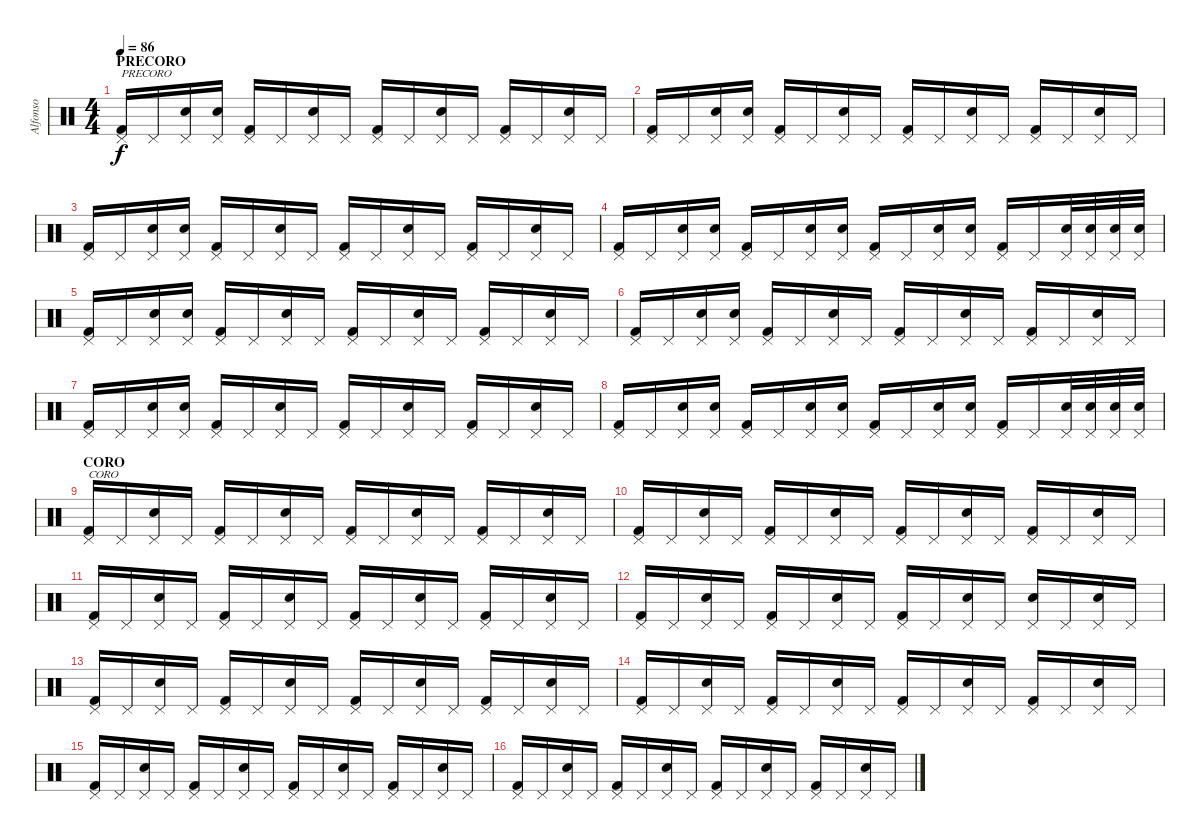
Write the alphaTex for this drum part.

\track ("Alfonso" "Alfonso") {instrument percussion}
\staff {score}
\articulation defaults
\ts (4 4)
\section ("" "PRECORO")
\tempo 86
\clef neutral
\ks c
("Pedal Hi-Hat (hit)" "Kick (hit) 2").16{txt "PRECORO" dy f} "Pedal Hi-Hat (hit)".16 ("Pedal Hi-Hat (hit)" "Electric Snare (hit)").16 ("Pedal Hi-Hat (hit)" "Electric Snare (hit)").16 ("Pedal Hi-Hat (hit)" "Kick (hit) 2").16 "Pedal Hi-Hat (hit)".16 ("Pedal Hi-Hat (hit)" "Electric Snare (hit)").16 "Pedal Hi-Hat (hit)".16 ("Pedal Hi-Hat (hit)" "Kick (hit) 2").16 "Pedal Hi-Hat (hit)".16 ("Pedal Hi-Hat (hit)" "Electric Snare (hit)").16 "Pedal Hi-Hat (hit)".16 ("Pedal Hi-Hat (hit)" "Kick (hit) 2").16 "Pedal Hi-Hat (hit)".16 ("Pedal Hi-Hat (hit)" "Electric Snare (hit)").16 "Pedal Hi-Hat (hit)".16 |
("Pedal Hi-Hat (hit)" "Kick (hit) 2").16 "Pedal Hi-Hat (hit)".16 ("Pedal Hi-Hat (hit)" "Electric Snare (hit)").16 ("Pedal Hi-Hat (hit)" "Electric Snare (hit)").16 ("Pedal Hi-Hat (hit)" "Kick (hit) 2").16 "Pedal Hi-Hat (hit)".16 ("Pedal Hi-Hat (hit)" "Electric Snare (hit)").16 "Pedal Hi-Hat (hit)".16 ("Pedal Hi-Hat (hit)" "Kick (hit) 2").16 "Pedal Hi-Hat (hit)".16 ("Pedal Hi-Hat (hit)" "Electric Snare (hit)").16 "Pedal Hi-Hat (hit)".16 ("Pedal Hi-Hat (hit)" "Kick (hit) 2").16 "Pedal Hi-Hat (hit)".16 ("Pedal Hi-Hat (hit)" "Electric Snare (hit)").16 "Pedal Hi-Hat (hit)".16 |
("Pedal Hi-Hat (hit)" "Kick (hit) 2").16 "Pedal Hi-Hat (hit)".16 ("Pedal Hi-Hat (hit)" "Electric Snare (hit)").16 ("Pedal Hi-Hat (hit)" "Electric Snare (hit)").16 ("Pedal Hi-Hat (hit)" "Kick (hit) 2").16 "Pedal Hi-Hat (hit)".16 ("Pedal Hi-Hat (hit)" "Electric Snare (hit)").16 "Pedal Hi-Hat (hit)".16 ("Pedal Hi-Hat (hit)" "Kick (hit) 2").16 "Pedal Hi-Hat (hit)".16 ("Pedal Hi-Hat (hit)" "Electric Snare (hit)").16 "Pedal Hi-Hat (hit)".16 ("Pedal Hi-Hat (hit)" "Kick (hit) 2").16 "Pedal Hi-Hat (hit)".16 ("Pedal Hi-Hat (hit)" "Electric Snare (hit)").16 "Pedal Hi-Hat (hit)".16 |
("Pedal Hi-Hat (hit)" "Kick (hit) 2").16 "Pedal Hi-Hat (hit)".16 ("Pedal Hi-Hat (hit)" "Electric Snare (hit)").16 ("Pedal Hi-Hat (hit)" "Electric Snare (hit)").16 ("Pedal Hi-Hat (hit)" "Kick (hit) 2").16 "Pedal Hi-Hat (hit)".16 ("Pedal Hi-Hat (hit)" "Electric Snare (hit)").16 ("Pedal Hi-Hat (hit)" "Electric Snare (hit)").16 ("Pedal Hi-Hat (hit)" "Kick (hit) 2").16 "Pedal Hi-Hat (hit)".16 ("Pedal Hi-Hat (hit)" "Electric Snare (hit)").16 ("Pedal Hi-Hat (hit)" "Electric Snare (hit)").16 ("Pedal Hi-Hat (hit)" "Kick (hit) 2").16 "Pedal Hi-Hat (hit)".16 ("Pedal Hi-Hat (hit)" "Electric Snare (hit)").32 ("Pedal Hi-Hat (hit)" "Electric Snare (hit)").32 ("Pedal Hi-Hat (hit)" "Electric Snare (hit)").32 ("Pedal Hi-Hat (hit)" "Electric Snare (hit)").32 |
("Pedal Hi-Hat (hit)" "Kick (hit) 2").16 "Pedal Hi-Hat (hit)".16 ("Pedal Hi-Hat (hit)" "Electric Snare (hit)").16 ("Pedal Hi-Hat (hit)" "Electric Snare (hit)").16 ("Pedal Hi-Hat (hit)" "Kick (hit) 2").16 "Pedal Hi-Hat (hit)".16 ("Pedal Hi-Hat (hit)" "Electric Snare (hit)").16 "Pedal Hi-Hat (hit)".16 ("Pedal Hi-Hat (hit)" "Kick (hit) 2").16 "Pedal Hi-Hat (hit)".16 ("Pedal Hi-Hat (hit)" "Electric Snare (hit)").16 "Pedal Hi-Hat (hit)".16 ("Pedal Hi-Hat (hit)" "Kick (hit) 2").16 "Pedal Hi-Hat (hit)".16 ("Pedal Hi-Hat (hit)" "Electric Snare (hit)").16 "Pedal Hi-Hat (hit)".16 |
("Pedal Hi-Hat (hit)" "Kick (hit) 2").16 "Pedal Hi-Hat (hit)".16 ("Pedal Hi-Hat (hit)" "Electric Snare (hit)").16 ("Pedal Hi-Hat (hit)" "Electric Snare (hit)").16 ("Pedal Hi-Hat (hit)" "Kick (hit) 2").16 "Pedal Hi-Hat (hit)".16 ("Pedal Hi-Hat (hit)" "Electric Snare (hit)").16 "Pedal Hi-Hat (hit)".16 ("Pedal Hi-Hat (hit)" "Kick (hit) 2").16 "Pedal Hi-Hat (hit)".16 ("Pedal Hi-Hat (hit)" "Electric Snare (hit)").16 "Pedal Hi-Hat (hit)".16 ("Pedal Hi-Hat (hit)" "Kick (hit) 2").16 "Pedal Hi-Hat (hit)".16 ("Pedal Hi-Hat (hit)" "Electric Snare (hit)").16 "Pedal Hi-Hat (hit)".16 |
("Pedal Hi-Hat (hit)" "Kick (hit) 2").16 "Pedal Hi-Hat (hit)".16 ("Pedal Hi-Hat (hit)" "Electric Snare (hit)").16 ("Pedal Hi-Hat (hit)" "Electric Snare (hit)").16 ("Pedal Hi-Hat (hit)" "Kick (hit) 2").16 "Pedal Hi-Hat (hit)".16 ("Pedal Hi-Hat (hit)" "Electric Snare (hit)").16 "Pedal Hi-Hat (hit)".16 ("Pedal Hi-Hat (hit)" "Kick (hit) 2").16 "Pedal Hi-Hat (hit)".16 ("Pedal Hi-Hat (hit)" "Electric Snare (hit)").16 "Pedal Hi-Hat (hit)".16 ("Pedal Hi-Hat (hit)" "Kick (hit) 2").16 "Pedal Hi-Hat (hit)".16 ("Pedal Hi-Hat (hit)" "Electric Snare (hit)").16 "Pedal Hi-Hat (hit)".16 |
("Pedal Hi-Hat (hit)" "Kick (hit) 2").16 "Pedal Hi-Hat (hit)".16 ("Pedal Hi-Hat (hit)" "Electric Snare (hit)").16 ("Pedal Hi-Hat (hit)" "Electric Snare (hit)").16 ("Pedal Hi-Hat (hit)" "Kick (hit) 2").16 "Pedal Hi-Hat (hit)".16 ("Pedal Hi-Hat (hit)" "Electric Snare (hit)").16 ("Pedal Hi-Hat (hit)" "Electric Snare (hit)").16 ("Pedal Hi-Hat (hit)" "Kick (hit) 2").16 "Pedal Hi-Hat (hit)".16 ("Pedal Hi-Hat (hit)" "Electric Snare (hit)").16 ("Pedal Hi-Hat (hit)" "Electric Snare (hit)").16 ("Pedal Hi-Hat (hit)" "Kick (hit) 2").16 "Pedal Hi-Hat (hit)".16 ("Pedal Hi-Hat (hit)" "Electric Snare (hit)").32 ("Pedal Hi-Hat (hit)" "Electric Snare (hit)").32 ("Pedal Hi-Hat (hit)" "Electric Snare (hit)").32 ("Pedal Hi-Hat (hit)" "Electric Snare (hit)").32 |
\section ("" "CORO")
("Pedal Hi-Hat (hit)" "Kick (hit) 2").16{txt "CORO"} "Pedal Hi-Hat (hit)".16 ("Pedal Hi-Hat (hit)" "Electric Snare (hit)").16 "Pedal Hi-Hat (hit)".16 ("Pedal Hi-Hat (hit)" "Kick (hit) 2").16 "Pedal Hi-Hat (hit)".16 ("Pedal Hi-Hat (hit)" "Electric Snare (hit)").16 "Pedal Hi-Hat (hit)".16 ("Pedal Hi-Hat (hit)" "Kick (hit) 2").16 "Pedal Hi-Hat (hit)".16 ("Pedal Hi-Hat (hit)" "Electric Snare (hit)").16 "Pedal Hi-Hat (hit)".16 ("Pedal Hi-Hat (hit)" "Kick (hit) 2").16 "Pedal Hi-Hat (hit)".16 ("Pedal Hi-Hat (hit)" "Electric Snare (hit)").16 "Pedal Hi-Hat (hit)".16 |
("Pedal Hi-Hat (hit)" "Kick (hit) 2").16 "Pedal Hi-Hat (hit)".16 ("Pedal Hi-Hat (hit)" "Electric Snare (hit)").16 "Pedal Hi-Hat (hit)".16 ("Pedal Hi-Hat (hit)" "Kick (hit) 2").16 "Pedal Hi-Hat (hit)".16 ("Pedal Hi-Hat (hit)" "Electric Snare (hit)").16 "Pedal Hi-Hat (hit)".16 ("Pedal Hi-Hat (hit)" "Kick (hit) 2").16 "Pedal Hi-Hat (hit)".16 ("Pedal Hi-Hat (hit)" "Electric Snare (hit)").16 "Pedal Hi-Hat (hit)".16 ("Pedal Hi-Hat (hit)" "Kick (hit) 2").16 "Pedal Hi-Hat (hit)".16 ("Pedal Hi-Hat (hit)" "Electric Snare (hit)").16 "Pedal Hi-Hat (hit)".16 |
("Pedal Hi-Hat (hit)" "Kick (hit) 2").16 "Pedal Hi-Hat (hit)".16 ("Pedal Hi-Hat (hit)" "Electric Snare (hit)").16 "Pedal Hi-Hat (hit)".16 ("Pedal Hi-Hat (hit)" "Kick (hit) 2").16 "Pedal Hi-Hat (hit)".16 ("Pedal Hi-Hat (hit)" "Electric Snare (hit)").16 "Pedal Hi-Hat (hit)".16 ("Pedal Hi-Hat (hit)" "Kick (hit) 2").16 "Pedal Hi-Hat (hit)".16 ("Pedal Hi-Hat (hit)" "Electric Snare (hit)").16 "Pedal Hi-Hat (hit)".16 ("Pedal Hi-Hat (hit)" "Kick (hit) 2").16 "Pedal Hi-Hat (hit)".16 ("Pedal Hi-Hat (hit)" "Electric Snare (hit)").16 "Pedal Hi-Hat (hit)".16 |
("Pedal Hi-Hat (hit)" "Kick (hit) 2").16 "Pedal Hi-Hat (hit)".16 ("Pedal Hi-Hat (hit)" "Electric Snare (hit)").16 "Pedal Hi-Hat (hit)".16 ("Pedal Hi-Hat (hit)" "Kick (hit) 2").16 "Pedal Hi-Hat (hit)".16 ("Pedal Hi-Hat (hit)" "Electric Snare (hit)").16 "Pedal Hi-Hat (hit)".16 ("Pedal Hi-Hat (hit)" "Kick (hit) 2").16 "Pedal Hi-Hat (hit)".16 ("Pedal Hi-Hat (hit)" "Electric Snare (hit)").16 "Pedal Hi-Hat (hit)".16 ("Pedal Hi-Hat (hit)" "Electric Snare (hit)").16 "Pedal Hi-Hat (hit)".16 ("Pedal Hi-Hat (hit)" "Electric Snare (hit)").16 "Pedal Hi-Hat (hit)".16 |
("Pedal Hi-Hat (hit)" "Kick (hit) 2").16 "Pedal Hi-Hat (hit)".16 ("Pedal Hi-Hat (hit)" "Electric Snare (hit)").16 "Pedal Hi-Hat (hit)".16 ("Pedal Hi-Hat (hit)" "Kick (hit) 2").16 "Pedal Hi-Hat (hit)".16 ("Pedal Hi-Hat (hit)" "Electric Snare (hit)").16 "Pedal Hi-Hat (hit)".16 ("Pedal Hi-Hat (hit)" "Kick (hit) 2").16 "Pedal Hi-Hat (hit)".16 ("Pedal Hi-Hat (hit)" "Electric Snare (hit)").16 "Pedal Hi-Hat (hit)".16 ("Pedal Hi-Hat (hit)" "Kick (hit) 2").16 "Pedal Hi-Hat (hit)".16 ("Pedal Hi-Hat (hit)" "Electric Snare (hit)").16 "Pedal Hi-Hat (hit)".16 |
("Pedal Hi-Hat (hit)" "Kick (hit) 2").16 "Pedal Hi-Hat (hit)".16 ("Pedal Hi-Hat (hit)" "Electric Snare (hit)").16 "Pedal Hi-Hat (hit)".16 ("Pedal Hi-Hat (hit)" "Kick (hit) 2").16 "Pedal Hi-Hat (hit)".16 ("Pedal Hi-Hat (hit)" "Electric Snare (hit)").16 "Pedal Hi-Hat (hit)".16 ("Pedal Hi-Hat (hit)" "Kick (hit) 2").16 "Pedal Hi-Hat (hit)".16 ("Pedal Hi-Hat (hit)" "Electric Snare (hit)").16 "Pedal Hi-Hat (hit)".16 ("Pedal Hi-Hat (hit)" "Kick (hit) 2").16 "Pedal Hi-Hat (hit)".16 ("Pedal Hi-Hat (hit)" "Electric Snare (hit)").16 "Pedal Hi-Hat (hit)".16 |
("Pedal Hi-Hat (hit)" "Kick (hit) 2").16 "Pedal Hi-Hat (hit)".16 ("Pedal Hi-Hat (hit)" "Electric Snare (hit)").16 "Pedal Hi-Hat (hit)".16 ("Pedal Hi-Hat (hit)" "Kick (hit) 2").16 "Pedal Hi-Hat (hit)".16 ("Pedal Hi-Hat (hit)" "Electric Snare (hit)").16 "Pedal Hi-Hat (hit)".16 ("Pedal Hi-Hat (hit)" "Kick (hit) 2").16 "Pedal Hi-Hat (hit)".16 ("Pedal Hi-Hat (hit)" "Electric Snare (hit)").16 "Pedal Hi-Hat (hit)".16 ("Pedal Hi-Hat (hit)" "Kick (hit) 2").16 "Pedal Hi-Hat (hit)".16 ("Pedal Hi-Hat (hit)" "Electric Snare (hit)").16 "Pedal Hi-Hat (hit)".16 |
("Pedal Hi-Hat (hit)" "Kick (hit) 2").16 "Pedal Hi-Hat (hit)".16 ("Pedal Hi-Hat (hit)" "Electric Snare (hit)").16 "Pedal Hi-Hat (hit)".16 ("Pedal Hi-Hat (hit)" "Kick (hit) 2").16 "Pedal Hi-Hat (hit)".16 ("Pedal Hi-Hat (hit)" "Electric Snare (hit)").16 "Pedal Hi-Hat (hit)".16 ("Pedal Hi-Hat (hit)" "Kick (hit) 2").16 "Pedal Hi-Hat (hit)".16 ("Pedal Hi-Hat (hit)" "Electric Snare (hit)").16 "Pedal Hi-Hat (hit)".16 ("Pedal Hi-Hat (hit)" "Kick (hit) 2").16 "Pedal Hi-Hat (hit)".16 ("Pedal Hi-Hat (hit)" "Electric Snare (hit)").16 "Pedal Hi-Hat (hit)".16
